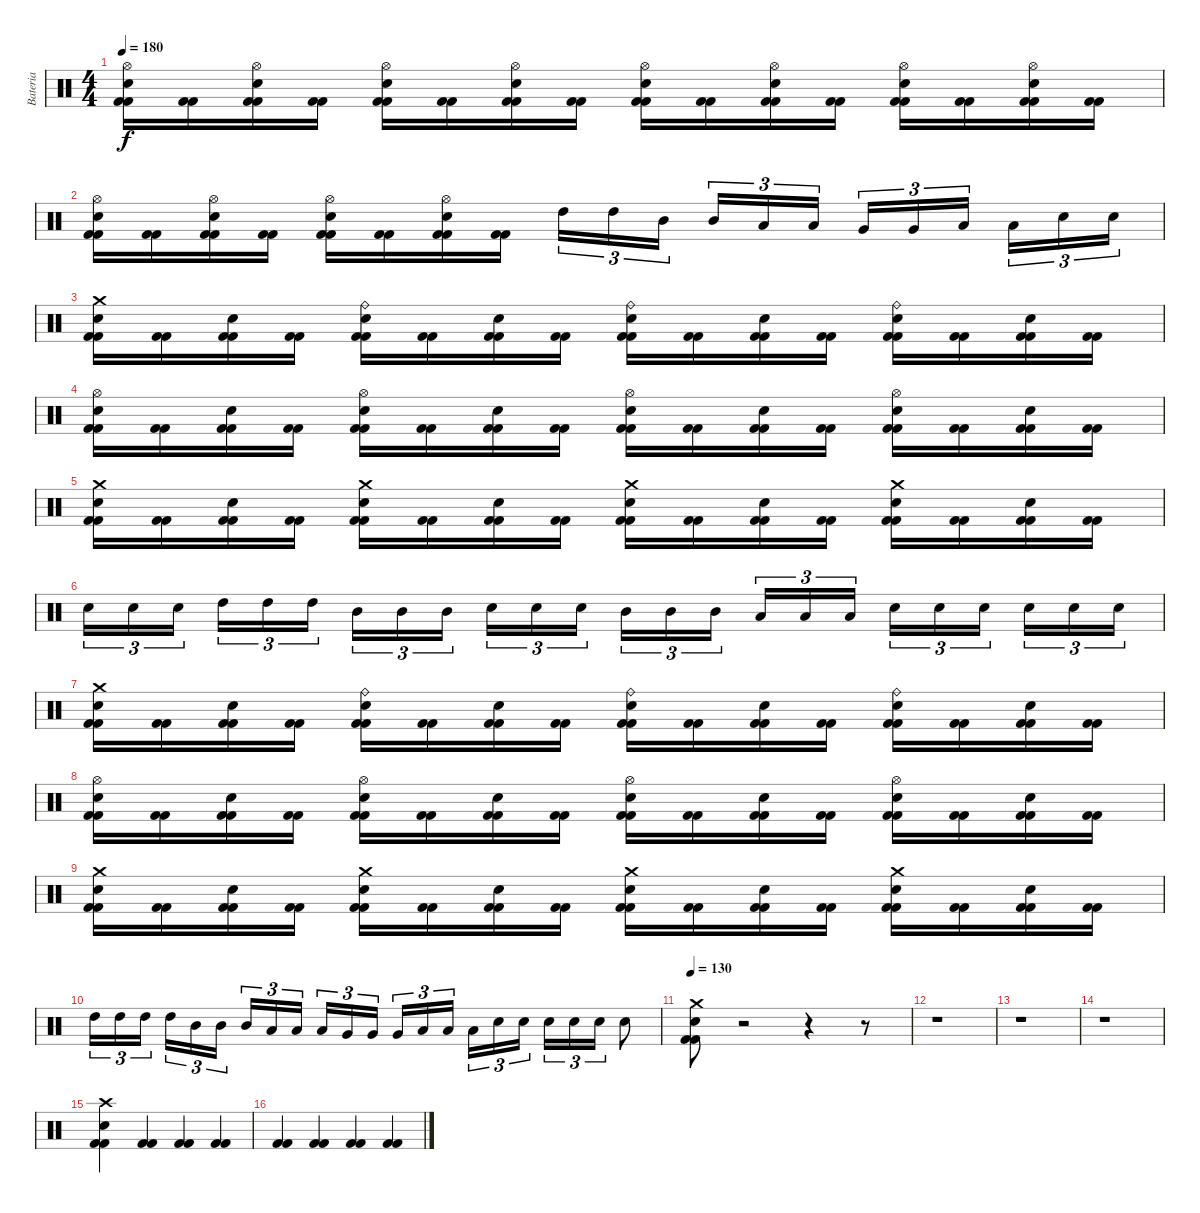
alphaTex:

\track ("Bateria" "Bateria") {instrument percussion}
\staff {score}
\articulation defaults
\ts (4 4)
\tempo 180
\clef neutral
\ks c
("Kick (hit) 2" "Kick (hit) 2" "Snare (hit) 2" "Hi-Hat (open)").16{dy f} ("Kick (hit) 2" "Kick (hit) 2").16 ("Kick (hit) 2" "Kick (hit) 2" "Hi-Hat (open)" "Snare (hit) 2").16 ("Kick (hit) 2" "Kick (hit) 2").16 ("Kick (hit) 2" "Kick (hit) 2" "Snare (hit) 2" "Hi-Hat (open)").16 ("Kick (hit) 2" "Kick (hit) 2").16 ("Kick (hit) 2" "Kick (hit) 2" "Hi-Hat (open)" "Snare (hit) 2").16 ("Kick (hit) 2" "Kick (hit) 2").16 ("Kick (hit) 2" "Kick (hit) 2" "Snare (hit) 2" "Hi-Hat (open)").16 ("Kick (hit) 2" "Kick (hit) 2").16 ("Kick (hit) 2" "Kick (hit) 2" "Hi-Hat (open)" "Snare (hit) 2").16 ("Kick (hit) 2" "Kick (hit) 2").16 ("Kick (hit) 2" "Kick (hit) 2" "Snare (hit) 2" "Hi-Hat (open)").16 ("Kick (hit) 2" "Kick (hit) 2").16 ("Kick (hit) 2" "Kick (hit) 2" "Hi-Hat (open)" "Snare (hit) 2").16 ("Kick (hit) 2" "Kick (hit) 2").16 |
("Kick (hit) 2" "Kick (hit) 2" "Snare (hit) 2" "Hi-Hat (open)").16 ("Kick (hit) 2" "Kick (hit) 2").16 ("Kick (hit) 2" "Kick (hit) 2" "Hi-Hat (open)" "Snare (hit) 2").16 ("Kick (hit) 2" "Kick (hit) 2").16 ("Kick (hit) 2" "Kick (hit) 2" "Snare (hit) 2" "Hi-Hat (open)").16 ("Kick (hit) 2" "Kick (hit) 2").16 ("Kick (hit) 2" "Kick (hit) 2" "Hi-Hat (open)" "Snare (hit) 2").16 ("Kick (hit) 2" "Kick (hit) 2").16 "High Tom (hit)".16{tu (3 2)} "High Tom (hit)".16{tu (3 2)} "Mid Tom (hit)".16{tu (3 2)} "Mid Tom (hit)".16{tu (3 2)} "Low Tom (hit)".16{tu (3 2)} "Low Tom (hit)".16{tu (3 2)} "Very Low Tom (hit)".16{tu (3 2)} "Very Low Tom (hit)".16{tu (3 2)} "Low Floor Tom (hit)".16{tu (3 2)} "Low Floor Tom (hit)".16{tu (3 2)} "Electric Snare (hit)".16{tu (3 2)} "Electric Snare (hit)".16{tu (3 2)} |
("Kick (hit) 2" "Kick (hit) 2" "Snare (hit) 2" "Crash medium (hit)").16 ("Kick (hit) 2" "Kick (hit) 2").16 ("Kick (hit) 2" "Kick (hit) 2" "Snare (hit) 2").16 ("Kick (hit) 2" "Kick (hit) 2").16 ("Kick (hit) 2" "Kick (hit) 2" "Snare (hit) 2" "Ride (bell)").16 ("Kick (hit) 2" "Kick (hit) 2").16 ("Kick (hit) 2" "Kick (hit) 2" "Snare (hit) 2").16 ("Kick (hit) 2" "Kick (hit) 2").16 ("Kick (hit) 2" "Kick (hit) 2" "Snare (hit) 2" "Ride (bell)").16 ("Kick (hit) 2" "Kick (hit) 2").16 ("Kick (hit) 2" "Kick (hit) 2" "Snare (hit) 2").16 ("Kick (hit) 2" "Kick (hit) 2").16 ("Kick (hit) 2" "Kick (hit) 2" "Snare (hit) 2" "Ride (bell)").16 ("Kick (hit) 2" "Kick (hit) 2").16 ("Kick (hit) 2" "Kick (hit) 2" "Snare (hit) 2").16 ("Kick (hit) 2" "Kick (hit) 2").16 |
("Kick (hit) 2" "Kick (hit) 2" "Snare (hit) 2" "Hi-Hat (open)").16 ("Kick (hit) 2" "Kick (hit) 2").16 ("Kick (hit) 2" "Kick (hit) 2" "Snare (hit) 2").16 ("Kick (hit) 2" "Kick (hit) 2").16 ("Kick (hit) 2" "Kick (hit) 2" "Snare (hit) 2" "Hi-Hat (open)").16 ("Kick (hit) 2" "Kick (hit) 2").16 ("Kick (hit) 2" "Kick (hit) 2" "Snare (hit) 2").16 ("Kick (hit) 2" "Kick (hit) 2").16 ("Kick (hit) 2" "Kick (hit) 2" "Snare (hit) 2" "Hi-Hat (open)").16 ("Kick (hit) 2" "Kick (hit) 2").16 ("Kick (hit) 2" "Kick (hit) 2" "Snare (hit) 2").16 ("Kick (hit) 2" "Kick (hit) 2").16 ("Kick (hit) 2" "Kick (hit) 2" "Snare (hit) 2" "Hi-Hat (open)").16 ("Kick (hit) 2" "Kick (hit) 2").16 ("Kick (hit) 2" "Kick (hit) 2" "Snare (hit) 2").16 ("Kick (hit) 2" "Kick (hit) 2").16 |
("Kick (hit) 2" "Kick (hit) 2" "Snare (hit) 2" "Crash medium (hit)").16 ("Kick (hit) 2" "Kick (hit) 2").16 ("Kick (hit) 2" "Kick (hit) 2" "Snare (hit) 2").16 ("Kick (hit) 2" "Kick (hit) 2").16 ("Kick (hit) 2" "Kick (hit) 2" "Snare (hit) 2" "Crash medium (hit)").16 ("Kick (hit) 2" "Kick (hit) 2").16 ("Kick (hit) 2" "Kick (hit) 2" "Snare (hit) 2").16 ("Kick (hit) 2" "Kick (hit) 2").16 ("Kick (hit) 2" "Kick (hit) 2" "Snare (hit) 2" "Crash medium (hit)").16 ("Kick (hit) 2" "Kick (hit) 2").16 ("Kick (hit) 2" "Kick (hit) 2" "Snare (hit) 2").16 ("Kick (hit) 2" "Kick (hit) 2").16 ("Kick (hit) 2" "Kick (hit) 2" "Snare (hit) 2" "Crash medium (hit)").16 ("Kick (hit) 2" "Kick (hit) 2").16 ("Kick (hit) 2" "Kick (hit) 2" "Snare (hit) 2").16 ("Kick (hit) 2" "Kick (hit) 2").16 |
"Electric Snare (hit)".16{tu (3 2)} "Electric Snare (hit)".16{tu (3 2)} "Electric Snare (hit)".16{tu (3 2)} "High Tom (hit)".16{tu (3 2)} "High Tom (hit)".16{tu (3 2)} "High Tom (hit)".16{tu (3 2)} "Mid Tom (hit)".16{tu (3 2)} "Mid Tom (hit)".16{tu (3 2)} "Mid Tom (hit)".16{tu (3 2)} "Electric Snare (hit)".16{tu (3 2)} "Electric Snare (hit)".16{tu (3 2)} "Electric Snare (hit)".16{tu (3 2)} "Mid Tom (hit)".16{tu (3 2)} "Mid Tom (hit)".16{tu (3 2)} "Mid Tom (hit)".16{tu (3 2)} "Low Tom (hit)".16{tu (3 2)} "Low Tom (hit)".16{tu (3 2)} "Low Tom (hit)".16{tu (3 2)} "Electric Snare (hit)".16{tu (3 2)} "Electric Snare (hit)".16{tu (3 2)} "Electric Snare (hit)".16{tu (3 2)} "Electric Snare (hit)".16{tu (3 2)} "Electric Snare (hit)".16{tu (3 2)} "Electric Snare (hit)".16{tu (3 2)} |
("Kick (hit) 2" "Kick (hit) 2" "Snare (hit) 2" "Crash medium (hit)").16 ("Kick (hit) 2" "Kick (hit) 2").16 ("Kick (hit) 2" "Kick (hit) 2" "Snare (hit) 2").16 ("Kick (hit) 2" "Kick (hit) 2").16 ("Kick (hit) 2" "Kick (hit) 2" "Snare (hit) 2" "Ride (bell)").16 ("Kick (hit) 2" "Kick (hit) 2").16 ("Kick (hit) 2" "Kick (hit) 2" "Snare (hit) 2").16 ("Kick (hit) 2" "Kick (hit) 2").16 ("Kick (hit) 2" "Kick (hit) 2" "Snare (hit) 2" "Ride (bell)").16 ("Kick (hit) 2" "Kick (hit) 2").16 ("Kick (hit) 2" "Kick (hit) 2" "Snare (hit) 2").16 ("Kick (hit) 2" "Kick (hit) 2").16 ("Kick (hit) 2" "Kick (hit) 2" "Snare (hit) 2" "Ride (bell)").16 ("Kick (hit) 2" "Kick (hit) 2").16 ("Kick (hit) 2" "Kick (hit) 2" "Snare (hit) 2").16 ("Kick (hit) 2" "Kick (hit) 2").16 |
("Kick (hit) 2" "Kick (hit) 2" "Snare (hit) 2" "Hi-Hat (open)").16 ("Kick (hit) 2" "Kick (hit) 2").16 ("Kick (hit) 2" "Kick (hit) 2" "Snare (hit) 2").16 ("Kick (hit) 2" "Kick (hit) 2").16 ("Kick (hit) 2" "Kick (hit) 2" "Snare (hit) 2" "Hi-Hat (open)").16 ("Kick (hit) 2" "Kick (hit) 2").16 ("Kick (hit) 2" "Kick (hit) 2" "Snare (hit) 2").16 ("Kick (hit) 2" "Kick (hit) 2").16 ("Kick (hit) 2" "Kick (hit) 2" "Snare (hit) 2" "Hi-Hat (open)").16 ("Kick (hit) 2" "Kick (hit) 2").16 ("Kick (hit) 2" "Kick (hit) 2" "Snare (hit) 2").16 ("Kick (hit) 2" "Kick (hit) 2").16 ("Kick (hit) 2" "Kick (hit) 2" "Snare (hit) 2" "Hi-Hat (open)").16 ("Kick (hit) 2" "Kick (hit) 2").16 ("Kick (hit) 2" "Kick (hit) 2" "Snare (hit) 2").16 ("Kick (hit) 2" "Kick (hit) 2").16 |
("Kick (hit) 2" "Kick (hit) 2" "Snare (hit) 2" "Crash medium (hit)").16 ("Kick (hit) 2" "Kick (hit) 2").16 ("Kick (hit) 2" "Kick (hit) 2" "Snare (hit) 2").16 ("Kick (hit) 2" "Kick (hit) 2").16 ("Kick (hit) 2" "Kick (hit) 2" "Snare (hit) 2" "Crash medium (hit)").16 ("Kick (hit) 2" "Kick (hit) 2").16 ("Kick (hit) 2" "Kick (hit) 2" "Snare (hit) 2").16 ("Kick (hit) 2" "Kick (hit) 2").16 ("Kick (hit) 2" "Kick (hit) 2" "Snare (hit) 2" "Crash medium (hit)").16 ("Kick (hit) 2" "Kick (hit) 2").16 ("Kick (hit) 2" "Kick (hit) 2" "Snare (hit) 2").16 ("Kick (hit) 2" "Kick (hit) 2").16 ("Kick (hit) 2" "Kick (hit) 2" "Snare (hit) 2" "Crash medium (hit)").16 ("Kick (hit) 2" "Kick (hit) 2").16 ("Kick (hit) 2" "Kick (hit) 2" "Snare (hit) 2").16 ("Kick (hit) 2" "Kick (hit) 2").16 |
"High Tom (hit)".16{tu (3 2)} "High Tom (hit)".16{tu (3 2)} "High Tom (hit)".16{tu (3 2)} "High Tom (hit)".16{tu (3 2)} "Mid Tom (hit)".16{tu (3 2)} "Mid Tom (hit)".16{tu (3 2)} "Mid Tom (hit)".16{tu (3 2)} "Low Tom (hit)".16{tu (3 2)} "Low Tom (hit)".16{tu (3 2)} "Low Tom (hit)".16{tu (3 2)} "Very Low Tom (hit)".16{tu (3 2)} "Very Low Tom (hit)".16{tu (3 2)} "Very Low Tom (hit)".16{tu (3 2)} "Low Floor Tom (hit)".16{tu (3 2)} "Low Floor Tom (hit)".16{tu (3 2)} "Low Floor Tom (hit)".16{tu (3 2)} "Electric Snare (hit)".16{tu (3 2)} "Electric Snare (hit)".16{tu (3 2)} "Electric Snare (hit)".16{tu (3 2)} "Electric Snare (hit)".16{tu (3 2)} "Electric Snare (hit)".16{tu (3 2)} "Electric Snare (hit)".8 |
\tempo 130
("Kick (hit) 2" "Kick (hit) 2" "Snare (hit) 2" "Crash medium (hit)").8 r.2 r.4 r.8 |
r.1 |
r.1 |
r.1 |
("Kick (hit) 2" "Kick (hit) 2" "Snare (hit) 2" "Crash high (hit)").4 ("Kick (hit) 2" "Kick (hit) 2").4 ("Kick (hit) 2" "Kick (hit) 2").4 ("Kick (hit) 2" "Kick (hit) 2").4 |
("Kick (hit) 2" "Kick (hit) 2").4 ("Kick (hit) 2" "Kick (hit) 2").4 ("Kick (hit) 2" "Kick (hit) 2").4 ("Kick (hit) 2" "Kick (hit) 2").4
